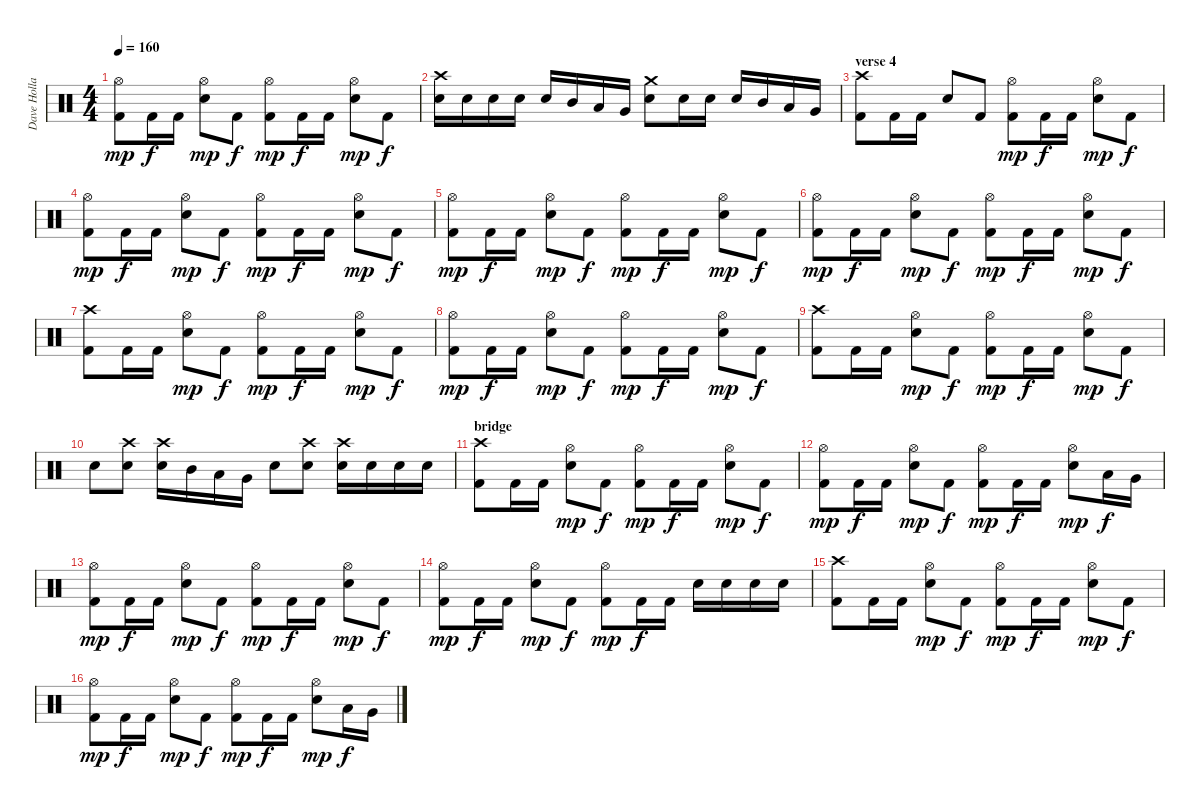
\track ("Dave Holland" "Dave Holla") {instrument percussion}
\staff {score}
\articulation defaults
\ts (4 4)
\tempo 160
\clef neutral
\ks c
("Kick (hit) 2" "Hi-Hat (open)").8{dy mp} "Kick (hit) 2".16{dy f} "Kick (hit) 2".16 ("Hi-Hat (open)" "Snare (hit) 2").8{dy mp} "Kick (hit) 2".8{dy f} ("Kick (hit) 2" "Hi-Hat (open)").8{dy mp} "Kick (hit) 2".16{dy f} "Kick (hit) 2".16 ("Hi-Hat (open)" "Snare (hit) 2").8{dy mp} "Kick (hit) 2".8{dy f} |
("Crash high (hit)" "Snare (hit) 2").16 "Snare (hit) 2".16 "Snare (hit) 2".16 "Snare (hit) 2".16 "Snare (hit) 2".16 "Mid Tom (hit)".16 "Low Tom (hit)".16 "Very Low Tom (hit)".16 ("Crash medium (hit)" "Snare (hit) 2").8 "Snare (hit) 2".16 "Snare (hit) 2".16 "Snare (hit) 2".16 "Mid Tom (hit)".16 "Low Tom (hit)".16 "Very Low Tom (hit)".16 |
\section ("" "verse 4")
("Kick (hit) 2" "Crash high (hit)").8 "Kick (hit) 2".16 "Kick (hit) 2".16 "Snare (hit) 2".8 "Kick (hit) 2".8 ("Kick (hit) 2" "Hi-Hat (open)").8{dy mp} "Kick (hit) 2".16{dy f} "Kick (hit) 2".16 ("Hi-Hat (open)" "Snare (hit) 2").8{dy mp} "Kick (hit) 2".8{dy f} |
("Kick (hit) 2" "Hi-Hat (open)").8{dy mp} "Kick (hit) 2".16{dy f} "Kick (hit) 2".16 ("Hi-Hat (open)" "Snare (hit) 2").8{dy mp} "Kick (hit) 2".8{dy f} ("Kick (hit) 2" "Hi-Hat (open)").8{dy mp} "Kick (hit) 2".16{dy f} "Kick (hit) 2".16 ("Hi-Hat (open)" "Snare (hit) 2").8{dy mp} "Kick (hit) 2".8{dy f} |
("Kick (hit) 2" "Hi-Hat (open)").8{dy mp} "Kick (hit) 2".16{dy f} "Kick (hit) 2".16 ("Hi-Hat (open)" "Snare (hit) 2").8{dy mp} "Kick (hit) 2".8{dy f} ("Kick (hit) 2" "Hi-Hat (open)").8{dy mp} "Kick (hit) 2".16{dy f} "Kick (hit) 2".16 ("Hi-Hat (open)" "Snare (hit) 2").8{dy mp} "Kick (hit) 2".8{dy f} |
("Kick (hit) 2" "Hi-Hat (open)").8{dy mp} "Kick (hit) 2".16{dy f} "Kick (hit) 2".16 ("Hi-Hat (open)" "Snare (hit) 2").8{dy mp} "Kick (hit) 2".8{dy f} ("Kick (hit) 2" "Hi-Hat (open)").8{dy mp} "Kick (hit) 2".16{dy f} "Kick (hit) 2".16 ("Hi-Hat (open)" "Snare (hit) 2").8{dy mp} "Kick (hit) 2".8{dy f} |
("Kick (hit) 2" "Crash high (hit)").8 "Kick (hit) 2".16 "Kick (hit) 2".16 ("Hi-Hat (open)" "Snare (hit) 2").8{dy mp} "Kick (hit) 2".8{dy f} ("Kick (hit) 2" "Hi-Hat (open)").8{dy mp} "Kick (hit) 2".16{dy f} "Kick (hit) 2".16 ("Hi-Hat (open)" "Snare (hit) 2").8{dy mp} "Kick (hit) 2".8{dy f} |
("Kick (hit) 2" "Hi-Hat (open)").8{dy mp} "Kick (hit) 2".16{dy f} "Kick (hit) 2".16 ("Hi-Hat (open)" "Snare (hit) 2").8{dy mp} "Kick (hit) 2".8{dy f} ("Kick (hit) 2" "Hi-Hat (open)").8{dy mp} "Kick (hit) 2".16{dy f} "Kick (hit) 2".16 ("Hi-Hat (open)" "Snare (hit) 2").8{dy mp} "Kick (hit) 2".8{dy f} |
("Kick (hit) 2" "Crash high (hit)").8 "Kick (hit) 2".16 "Kick (hit) 2".16 ("Hi-Hat (open)" "Snare (hit) 2").8{dy mp} "Kick (hit) 2".8{dy f} ("Kick (hit) 2" "Hi-Hat (open)").8{dy mp} "Kick (hit) 2".16{dy f} "Kick (hit) 2".16 ("Hi-Hat (open)" "Snare (hit) 2").8{dy mp} "Kick (hit) 2".8{dy f} |
"Snare (hit) 2".8 ("Crash high (hit)" "Snare (hit) 2").8 ("Crash high (hit)" "Snare (hit) 2").16 "Mid Tom (hit)".16 "Low Tom (hit)".16 "Very Low Tom (hit)".16 "Snare (hit) 2".8 ("Crash high (hit)" "Snare (hit) 2").8 ("Crash high (hit)" "Snare (hit) 2").16 "Snare (hit) 2".16 "Snare (hit) 2".16 "Snare (hit) 2".16 |
\section ("" "bridge")
("Kick (hit) 2" "Crash high (hit)").8 "Kick (hit) 2".16 "Kick (hit) 2".16 ("Hi-Hat (open)" "Snare (hit) 2").8{dy mp} "Kick (hit) 2".8{dy f} ("Kick (hit) 2" "Hi-Hat (open)").8{dy mp} "Kick (hit) 2".16{dy f} "Kick (hit) 2".16 ("Hi-Hat (open)" "Snare (hit) 2").8{dy mp} "Kick (hit) 2".8{dy f} |
("Kick (hit) 2" "Hi-Hat (open)").8{dy mp} "Kick (hit) 2".16{dy f} "Kick (hit) 2".16 ("Hi-Hat (open)" "Snare (hit) 2").8{dy mp} "Kick (hit) 2".8{dy f} ("Kick (hit) 2" "Hi-Hat (open)").8{dy mp} "Kick (hit) 2".16{dy f} "Kick (hit) 2".16 ("Hi-Hat (open)" "Snare (hit) 2").8{dy mp} "Low Tom (hit)".16{dy f} "Very Low Tom (hit)".16 |
("Kick (hit) 2" "Hi-Hat (open)").8{dy mp} "Kick (hit) 2".16{dy f} "Kick (hit) 2".16 ("Hi-Hat (open)" "Snare (hit) 2").8{dy mp} "Kick (hit) 2".8{dy f} ("Kick (hit) 2" "Hi-Hat (open)").8{dy mp} "Kick (hit) 2".16{dy f} "Kick (hit) 2".16 ("Hi-Hat (open)" "Snare (hit) 2").8{dy mp} "Kick (hit) 2".8{dy f} |
("Kick (hit) 2" "Hi-Hat (open)").8{dy mp} "Kick (hit) 2".16{dy f} "Kick (hit) 2".16 ("Hi-Hat (open)" "Snare (hit) 2").8{dy mp} "Kick (hit) 2".8{dy f} ("Kick (hit) 2" "Hi-Hat (open)").8{dy mp} "Kick (hit) 2".16{dy f} "Kick (hit) 2".16 "Snare (hit) 2".16 "Snare (hit) 2".16 "Snare (hit) 2".16 "Snare (hit) 2".16 |
("Kick (hit) 2" "Crash high (hit)").8 "Kick (hit) 2".16 "Kick (hit) 2".16 ("Hi-Hat (open)" "Snare (hit) 2").8{dy mp} "Kick (hit) 2".8{dy f} ("Kick (hit) 2" "Hi-Hat (open)").8{dy mp} "Kick (hit) 2".16{dy f} "Kick (hit) 2".16 ("Hi-Hat (open)" "Snare (hit) 2").8{dy mp} "Kick (hit) 2".8{dy f} |
("Kick (hit) 2" "Hi-Hat (open)").8{dy mp} "Kick (hit) 2".16{dy f} "Kick (hit) 2".16 ("Hi-Hat (open)" "Snare (hit) 2").8{dy mp} "Kick (hit) 2".8{dy f} ("Kick (hit) 2" "Hi-Hat (open)").8{dy mp} "Kick (hit) 2".16{dy f} "Kick (hit) 2".16 ("Hi-Hat (open)" "Snare (hit) 2").8{dy mp} "Low Tom (hit)".16{dy f} "Very Low Tom (hit)".16
